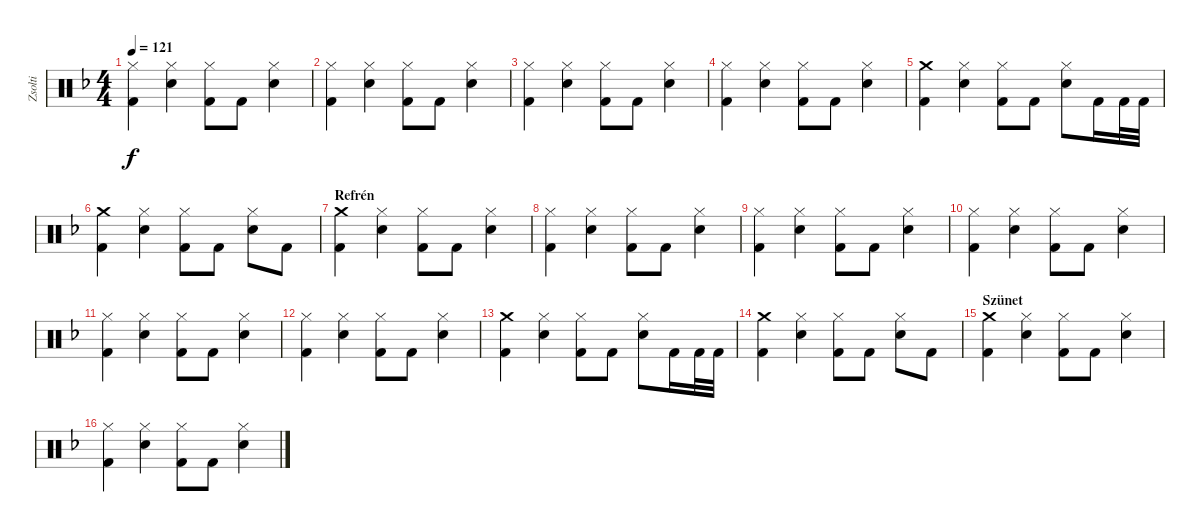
\track ("Zsolti" "Zsolti") {instrument percussion}
\staff {score}
\articulation defaults
\ts (4 4)
\tempo 121
\clef neutral
\ks dminor
("Hi-Hat (closed)" "Kick (hit) 2").4{dy f} ("Hi-Hat (closed)" "Snare (hit) 2").4 ("Hi-Hat (closed)" "Kick (hit) 2").8 "Kick (hit) 2".8 ("Hi-Hat (closed)" "Snare (hit) 2").4 |
("Hi-Hat (closed)" "Kick (hit) 2").4 ("Hi-Hat (closed)" "Snare (hit) 2").4 ("Hi-Hat (closed)" "Kick (hit) 2").8 "Kick (hit) 2".8 ("Hi-Hat (closed)" "Snare (hit) 2").4 |
("Hi-Hat (closed)" "Kick (hit) 2").4 ("Hi-Hat (closed)" "Snare (hit) 2").4 ("Hi-Hat (closed)" "Kick (hit) 2").8 "Kick (hit) 2".8 ("Hi-Hat (closed)" "Snare (hit) 2").4 |
("Hi-Hat (closed)" "Kick (hit) 2").4 ("Hi-Hat (closed)" "Snare (hit) 2").4 ("Hi-Hat (closed)" "Kick (hit) 2").8 "Kick (hit) 2".8 ("Hi-Hat (closed)" "Snare (hit) 2").4 |
("Crash medium (hit)" "Kick (hit) 2").4 ("Hi-Hat (closed)" "Snare (hit) 2").4 ("Hi-Hat (closed)" "Kick (hit) 2").8 "Kick (hit) 2".8 ("Hi-Hat (closed)" "Snare (hit) 2").8 "Kick (hit) 2".16 "Kick (hit) 2".32 "Kick (hit) 2".32 |
("Crash medium (hit)" "Kick (hit) 2").4 ("Hi-Hat (closed)" "Snare (hit) 2").4 ("Hi-Hat (closed)" "Kick (hit) 2").8 "Kick (hit) 2".8 ("Hi-Hat (closed)" "Snare (hit) 2").8 "Kick (hit) 2".8 |
\section ("" "Refrén")
("Crash medium (hit)" "Kick (hit) 2").4 ("Hi-Hat (closed)" "Snare (hit) 2").4 ("Hi-Hat (closed)" "Kick (hit) 2").8 "Kick (hit) 2".8 ("Hi-Hat (closed)" "Snare (hit) 2").4 |
("Hi-Hat (closed)" "Kick (hit) 2").4 ("Hi-Hat (closed)" "Snare (hit) 2").4 ("Hi-Hat (closed)" "Kick (hit) 2").8 "Kick (hit) 2".8 ("Hi-Hat (closed)" "Snare (hit) 2").4 |
("Hi-Hat (closed)" "Kick (hit) 2").4 ("Hi-Hat (closed)" "Snare (hit) 2").4 ("Hi-Hat (closed)" "Kick (hit) 2").8 "Kick (hit) 2".8 ("Hi-Hat (closed)" "Snare (hit) 2").4 |
("Hi-Hat (closed)" "Kick (hit) 2").4 ("Hi-Hat (closed)" "Snare (hit) 2").4 ("Hi-Hat (closed)" "Kick (hit) 2").8 "Kick (hit) 2".8 ("Hi-Hat (closed)" "Snare (hit) 2").4 |
("Hi-Hat (closed)" "Kick (hit) 2").4 ("Hi-Hat (closed)" "Snare (hit) 2").4 ("Hi-Hat (closed)" "Kick (hit) 2").8 "Kick (hit) 2".8 ("Hi-Hat (closed)" "Snare (hit) 2").4 |
("Hi-Hat (closed)" "Kick (hit) 2").4 ("Hi-Hat (closed)" "Snare (hit) 2").4 ("Hi-Hat (closed)" "Kick (hit) 2").8 "Kick (hit) 2".8 ("Hi-Hat (closed)" "Snare (hit) 2").4 |
("Crash medium (hit)" "Kick (hit) 2").4 ("Hi-Hat (closed)" "Snare (hit) 2").4 ("Hi-Hat (closed)" "Kick (hit) 2").8 "Kick (hit) 2".8 ("Hi-Hat (closed)" "Snare (hit) 2").8 "Kick (hit) 2".16 "Kick (hit) 2".32 "Kick (hit) 2".32 |
("Crash medium (hit)" "Kick (hit) 2").4 ("Hi-Hat (closed)" "Snare (hit) 2").4 ("Hi-Hat (closed)" "Kick (hit) 2").8 "Kick (hit) 2".8 ("Hi-Hat (closed)" "Snare (hit) 2").8 "Kick (hit) 2".8 |
\section ("" "Szünet")
("Crash medium (hit)" "Kick (hit) 2").4 ("Hi-Hat (closed)" "Snare (hit) 2").4 ("Hi-Hat (closed)" "Kick (hit) 2").8 "Kick (hit) 2".8 ("Hi-Hat (closed)" "Snare (hit) 2").4 |
("Hi-Hat (closed)" "Kick (hit) 2").4 ("Hi-Hat (closed)" "Snare (hit) 2").4 ("Hi-Hat (closed)" "Kick (hit) 2").8 "Kick (hit) 2".8 ("Hi-Hat (closed)" "Snare (hit) 2").4
